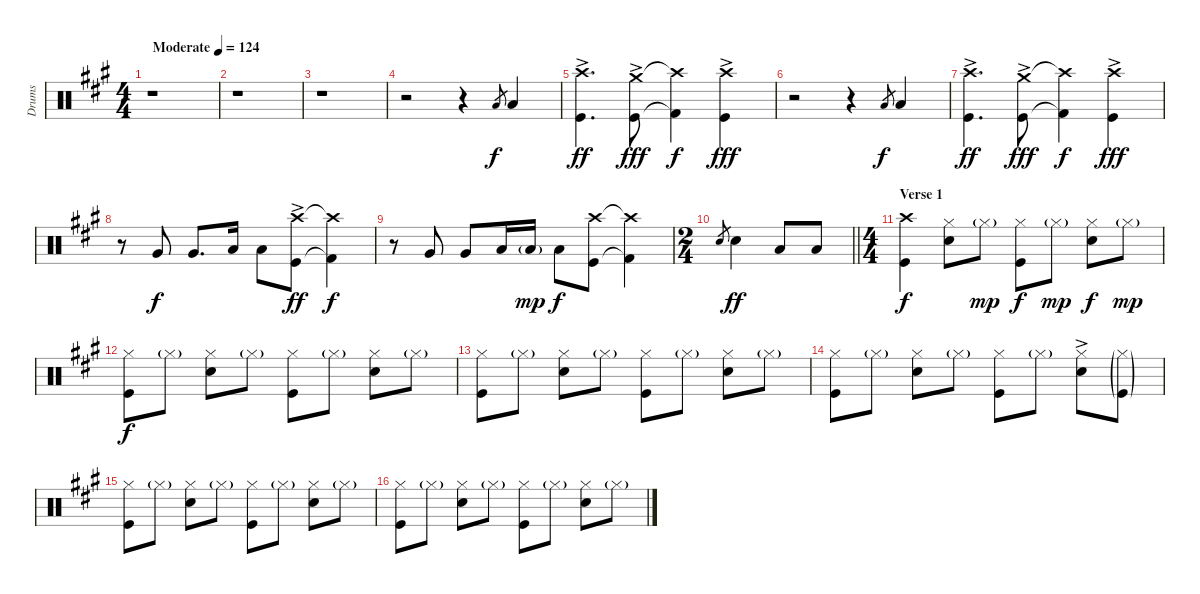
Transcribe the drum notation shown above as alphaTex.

\track ("Drums" "Drums") {instrument percussion}
\staff {score}
\articulation defaults
\ts (4 4)
\tempo (124 "Moderate")
\clef neutral
\ks a
r.1{dy f} |
r.1 |
r.1 |
r.2 r.4 "Low Floor Tom (hit)".8{gr} "Low Floor Tom (hit)".4 |
("Kick (hit)"{ac} "Crash high (hit)"{ac}).4{d dy ff} ("Kick (hit)"{ac} "Crash medium (hit)"{ac}).8{dy fff} ("Kick (hit) 2"{t} "Crash high (hit)"{t}).4{dy f} ("Kick (hit)"{ac} "Crash high (hit)"{ac}).4{dy fff} |
r.2 r.4 "Low Floor Tom (hit)".8{gr dy f} "Low Floor Tom (hit)".4 |
("Kick (hit)"{ac} "Crash high (hit)"{ac}).4{d dy ff} ("Kick (hit)"{ac} "Crash medium (hit)"{ac}).8{dy fff} ("Kick (hit) 2"{t} "Crash high (hit)"{t}).4{dy f} ("Kick (hit)"{ac} "Crash high (hit)"{ac}).4{dy fff} |
r.8 "Very Low Tom (hit)".8{dy f} "Very Low Tom (hit)".8{d} "Low Floor Tom (hit)".16 "Low Floor Tom (hit)".8 ("Kick (hit)"{ac} "Crash high (hit)"{ac}).8{dy ff} ("Kick (hit) 2"{t} "Crash high (hit)"{t}).4{dy f} |
r.8 "Very Low Tom (hit)".8 "Very Low Tom (hit)".8 "Low Floor Tom (hit)".16 "Low Floor Tom (hit)"{g}.16{dy mp} "Low Floor Tom (hit)".8{dy f} ("Crash high (hit)" "Kick (hit)").8 ("Crash high (hit)"{t} "Kick (hit) 2"{t}).4 |
\ts (2 4)
\barLineRight lightlight "Snare (hit) 2".8{gr} "Snare (hit) 2".4{dy ff} "Low Tom (hit)".8 "Low Tom (hit)".8
|
\ts (4 4)
\section ("" "Verse 1")
("Kick (hit)" "Crash high (hit)").4{dy f} ("Hi-Hat (closed)" "Snare (hit) 2").8 "Hi-Hat (closed)"{g}.8{dy mp} ("Hi-Hat (closed)" "Kick (hit)").8{dy f} "Hi-Hat (closed)"{g}.8{dy mp} ("Hi-Hat (closed)" "Snare (hit) 2").8{dy f} "Hi-Hat (closed)"{g}.8{dy mp} |
("Kick (hit)" "Hi-Hat (closed)").8{dy f} "Hi-Hat (closed)"{g}.8 ("Snare (hit) 2" "Hi-Hat (closed)").8 "Hi-Hat (closed)"{g}.8 ("Kick (hit)" "Hi-Hat (closed)").8 "Hi-Hat (closed)"{g}.8 ("Snare (hit) 2" "Hi-Hat (closed)").8 "Hi-Hat (closed)"{g}.8 |
("Kick (hit)" "Hi-Hat (closed)").8 "Hi-Hat (closed)"{g}.8 ("Snare (hit) 2" "Hi-Hat (closed)").8 "Hi-Hat (closed)"{g}.8 ("Kick (hit)" "Hi-Hat (closed)").8 "Hi-Hat (closed)"{g}.8 ("Snare (hit) 2" "Hi-Hat (closed)").8 "Hi-Hat (closed)"{g}.8 |
("Kick (hit)" "Hi-Hat (closed)").8 "Hi-Hat (closed)"{g}.8 ("Snare (hit) 2" "Hi-Hat (closed)").8 "Hi-Hat (closed)"{g}.8 ("Kick (hit)" "Hi-Hat (closed)").8 "Hi-Hat (closed)"{g}.8 ("Hi-Hat (closed)" "Snare (hit) 2"{ac}).8 ("Hi-Hat (closed)"{g} "Kick (hit)"{g}).8 |
("Kick (hit)" "Hi-Hat (closed)").8 "Hi-Hat (closed)"{g}.8 ("Snare (hit) 2" "Hi-Hat (closed)").8 "Hi-Hat (closed)"{g}.8 ("Hi-Hat (closed)" "Kick (hit)").8 "Hi-Hat (closed)"{g}.8 ("Snare (hit) 2" "Hi-Hat (closed)").8 "Hi-Hat (closed)"{g}.8 |
("Kick (hit)" "Hi-Hat (closed)").8 "Hi-Hat (closed)"{g}.8 ("Snare (hit) 2" "Hi-Hat (closed)").8 "Hi-Hat (closed)"{g}.8 ("Kick (hit)" "Hi-Hat (closed)").8 "Hi-Hat (closed)"{g}.8 ("Snare (hit) 2" "Hi-Hat (closed)").8 "Hi-Hat (closed)"{g}.8
